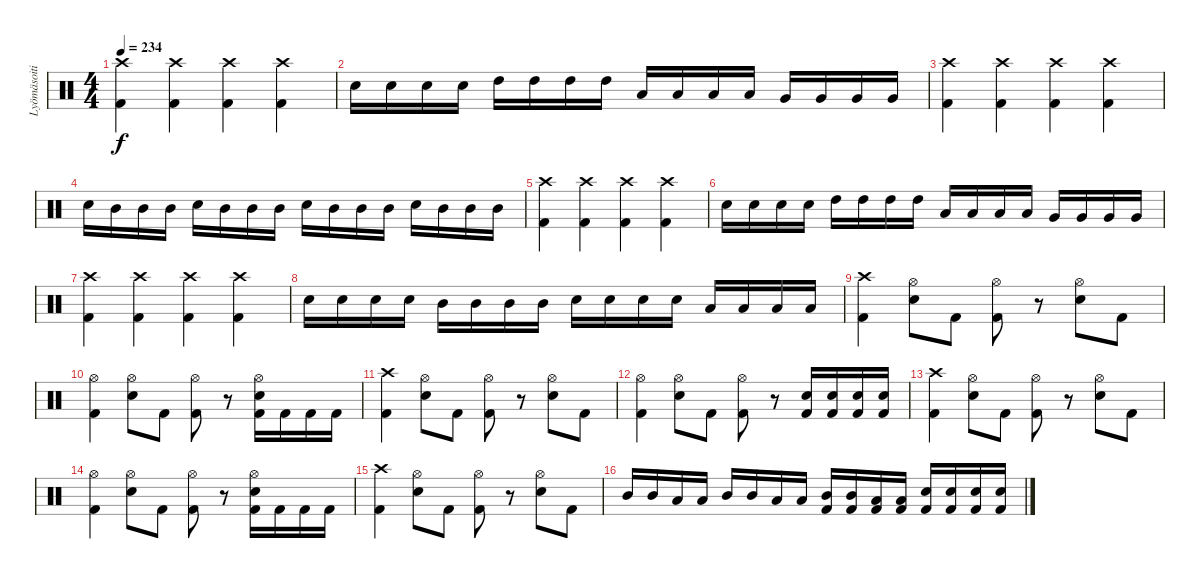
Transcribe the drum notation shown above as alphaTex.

\track ("Lyömäsoitin" "Lyömäsoiti") {instrument percussion}
\staff {score}
\articulation defaults
\ts (4 4)
\tempo 234
\clef neutral
\ks c
("Crash high (hit)" "Kick (hit) 2").4{dy f} ("Crash high (hit)" "Kick (hit) 2").4 ("Crash high (hit)" "Kick (hit) 2").4 ("Crash high (hit)" "Kick (hit) 2").4 |
"Electric Snare (hit)".16 "Electric Snare (hit)".16 "Electric Snare (hit)".16 "Electric Snare (hit)".16 "High Tom (hit)".16 "High Tom (hit)".16 "High Tom (hit)".16 "High Tom (hit)".16 "Low Tom (hit)".16 "Low Tom (hit)".16 "Low Tom (hit)".16 "Low Tom (hit)".16 "Very Low Tom (hit)".16 "Very Low Tom (hit)".16 "Very Low Tom (hit)".16 "Very Low Tom (hit)".16 |
("Crash high (hit)" "Kick (hit) 2").4 ("Crash high (hit)" "Kick (hit) 2").4 ("Crash high (hit)" "Kick (hit) 2").4 ("Crash high (hit)" "Kick (hit) 2").4 |
"Snare (hit) 2".16 "Mid Tom (hit)".16 "Mid Tom (hit)".16 "Mid Tom (hit)".16 "Snare (hit) 2".16 "Mid Tom (hit)".16 "Mid Tom (hit)".16 "Mid Tom (hit)".16 "Snare (hit) 2".16 "Mid Tom (hit)".16 "Mid Tom (hit)".16 "Mid Tom (hit)".16 "Snare (hit) 2".16 "Mid Tom (hit)".16 "Mid Tom (hit)".16 "Mid Tom (hit)".16 |
("Crash high (hit)" "Kick (hit) 2").4 ("Crash high (hit)" "Kick (hit) 2").4 ("Crash high (hit)" "Kick (hit) 2").4 ("Crash high (hit)" "Kick (hit) 2").4 |
"Electric Snare (hit)".16 "Electric Snare (hit)".16 "Electric Snare (hit)".16 "Electric Snare (hit)".16 "High Tom (hit)".16 "High Tom (hit)".16 "High Tom (hit)".16 "High Tom (hit)".16 "Low Tom (hit)".16 "Low Tom (hit)".16 "Low Tom (hit)".16 "Low Tom (hit)".16 "Very Low Tom (hit)".16 "Very Low Tom (hit)".16 "Very Low Tom (hit)".16 "Very Low Tom (hit)".16 |
("Crash high (hit)" "Kick (hit) 2").4 ("Crash high (hit)" "Kick (hit) 2").4 ("Crash high (hit)" "Kick (hit) 2").4 ("Crash high (hit)" "Kick (hit) 2").4 |
"Snare (hit) 2".16 "Snare (hit) 2".16 "Snare (hit) 2".16 "Snare (hit) 2".16 "Mid Tom (hit)".16 "Mid Tom (hit)".16 "Mid Tom (hit)".16 "Mid Tom (hit)".16 "Snare (hit) 2".16 "Snare (hit) 2".16 "Snare (hit) 2".16 "Snare (hit) 2".16 "Low Tom (hit)".16 "Low Tom (hit)".16 "Low Tom (hit)".16 "Low Tom (hit)".16 |
("Crash high (hit)" "Kick (hit) 2").4 ("Hi-Hat (open)" "Electric Snare (hit)").8 "Kick (hit) 2".8 ("Hi-Hat (open)" "Kick (hit) 2").8 r.8 ("Hi-Hat (open)" "Electric Snare (hit)").8 "Kick (hit) 2".8 |
("Hi-Hat (open)" "Kick (hit) 2").4 ("Hi-Hat (open)" "Electric Snare (hit)").8 "Kick (hit) 2".8 ("Hi-Hat (open)" "Kick (hit) 2").8 r.8 ("Hi-Hat (open)" "Electric Snare (hit)" "Kick (hit) 2").16 "Kick (hit) 2".16 "Kick (hit) 2".16 "Kick (hit) 2".16 |
("Crash high (hit)" "Kick (hit) 2").4 ("Hi-Hat (open)" "Electric Snare (hit)").8 "Kick (hit) 2".8 ("Hi-Hat (open)" "Kick (hit) 2").8 r.8 ("Hi-Hat (open)" "Electric Snare (hit)").8 "Kick (hit) 2".8 |
("Hi-Hat (open)" "Kick (hit) 2").4 ("Hi-Hat (open)" "Electric Snare (hit)").8 "Kick (hit) 2".8 ("Hi-Hat (open)" "Kick (hit) 2").8 r.8 ("Snare (hit) 2" "Kick (hit) 2").16 ("Snare (hit) 2" "Kick (hit) 2").16 ("Snare (hit) 2" "Kick (hit) 2").16 ("Snare (hit) 2" "Kick (hit) 2").16 |
("Crash high (hit)" "Kick (hit) 2").4 ("Hi-Hat (open)" "Electric Snare (hit)").8 "Kick (hit) 2".8 ("Hi-Hat (open)" "Kick (hit) 2").8 r.8 ("Hi-Hat (open)" "Electric Snare (hit)").8 "Kick (hit) 2".8 |
("Hi-Hat (open)" "Kick (hit) 2").4 ("Hi-Hat (open)" "Electric Snare (hit)").8 "Kick (hit) 2".8 ("Hi-Hat (open)" "Kick (hit) 2").8 r.8 ("Hi-Hat (open)" "Electric Snare (hit)" "Kick (hit) 2").16 "Kick (hit) 2".16 "Kick (hit) 2".16 "Kick (hit) 2".16 |
("Crash high (hit)" "Kick (hit) 2").4 ("Hi-Hat (open)" "Electric Snare (hit)").8 "Kick (hit) 2".8 ("Hi-Hat (open)" "Kick (hit) 2").8 r.8 ("Hi-Hat (open)" "Electric Snare (hit)").8 "Kick (hit) 2".8 |
"Mid Tom (hit)".16 "Mid Tom (hit)".16 "Low Floor Tom (hit)".16 "Low Floor Tom (hit)".16 "Mid Tom (hit)".16 "Mid Tom (hit)".16 "Low Floor Tom (hit)".16 "Low Floor Tom (hit)".16 ("Mid Tom (hit)" "Kick (hit) 2").16 ("Mid Tom (hit)" "Kick (hit) 2").16 ("Low Floor Tom (hit)" "Kick (hit) 2").16 ("Low Floor Tom (hit)" "Kick (hit) 2").16 ("Electric Snare (hit)" "Kick (hit) 2").16 ("Electric Snare (hit)" "Kick (hit) 2").16 ("Electric Snare (hit)" "Kick (hit) 2").16 ("Electric Snare (hit)" "Kick (hit) 2").16
